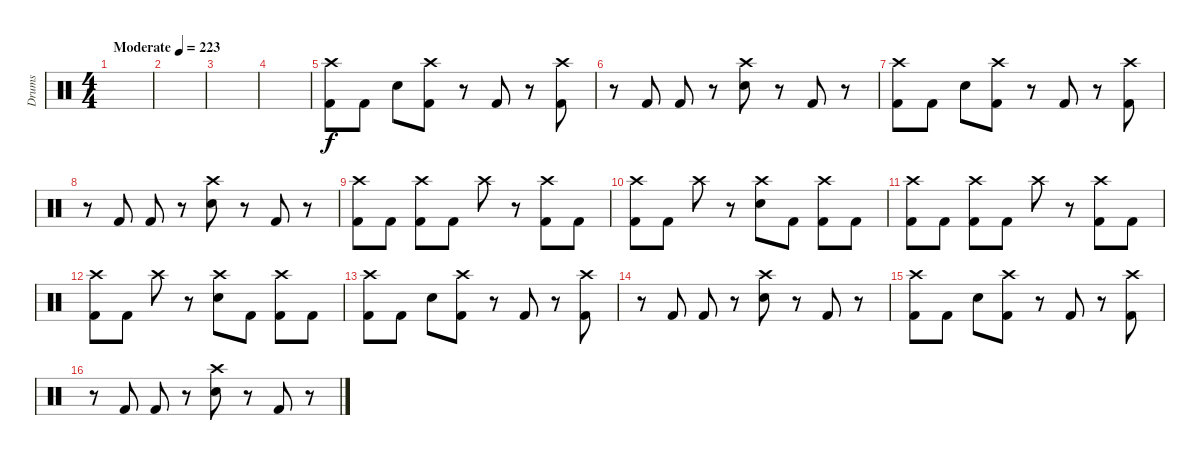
\track ("Drums" "Drums") {instrument percussion bank 177}
\staff {score}
\articulation defaults
\ts (4 4)
\tempo (223 "Moderate")
\clef neutral
\ks c
|
|
|
|
("Crash high (hit)" "Kick (hit) 2").8 "Kick (hit) 2".8 "Electric Snare (hit)".8 ("Crash high (hit)" "Kick (hit) 2").8 r.8 "Kick (hit) 2".8 r.8 ("Crash high (hit)" "Kick (hit) 2").8 |
r.8 "Kick (hit) 2".8 "Kick (hit) 2".8 r.8 ("Crash high (hit)" "Electric Snare (hit)").8 r.8 "Kick (hit) 2".8 r.8 |
("Crash high (hit)" "Kick (hit) 2").8 "Kick (hit) 2".8 "Electric Snare (hit)".8 ("Crash high (hit)" "Kick (hit) 2").8 r.8 "Kick (hit) 2".8 r.8 ("Crash high (hit)" "Kick (hit) 2").8 |
r.8 "Kick (hit) 2".8 "Kick (hit) 2".8 r.8 ("Crash high (hit)" "Electric Snare (hit)").8 r.8 "Kick (hit) 2".8 r.8 |
("Crash high (hit)" "Kick (hit) 2").8 "Kick (hit) 2".8 ("Crash high (hit)" "Kick (hit) 2").8 "Kick (hit) 2".8 "Crash high (hit)".8 r.8 ("Crash high (hit)" "Kick (hit) 2").8 "Kick (hit) 2".8 |
("Crash high (hit)" "Kick (hit) 2").8 "Kick (hit) 2".8 "Crash high (hit)".8 r.8 ("Crash high (hit)" "Electric Snare (hit)").8 "Kick (hit) 2".8 ("Crash high (hit)" "Kick (hit) 2").8 "Kick (hit) 2".8 |
("Crash high (hit)" "Kick (hit) 2").8 "Kick (hit) 2".8 ("Crash high (hit)" "Kick (hit) 2").8 "Kick (hit) 2".8 "Crash high (hit)".8 r.8 ("Crash high (hit)" "Kick (hit) 2").8 "Kick (hit) 2".8 |
("Crash high (hit)" "Kick (hit) 2").8 "Kick (hit) 2".8 "Crash high (hit)".8 r.8 ("Crash high (hit)" "Electric Snare (hit)").8 "Kick (hit) 2".8 ("Crash high (hit)" "Kick (hit) 2").8 "Kick (hit) 2".8 |
("Crash high (hit)" "Kick (hit) 2").8 "Kick (hit) 2".8 "Electric Snare (hit)".8 ("Crash high (hit)" "Kick (hit) 2").8 r.8 "Kick (hit) 2".8 r.8 ("Crash high (hit)" "Kick (hit) 2").8 |
r.8 "Kick (hit) 2".8 "Kick (hit) 2".8 r.8 ("Crash high (hit)" "Electric Snare (hit)").8 r.8 "Kick (hit) 2".8 r.8 |
("Crash high (hit)" "Kick (hit) 2").8 "Kick (hit) 2".8 "Electric Snare (hit)".8 ("Crash high (hit)" "Kick (hit) 2").8 r.8 "Kick (hit) 2".8 r.8 ("Crash high (hit)" "Kick (hit) 2").8 |
r.8 "Kick (hit) 2".8 "Kick (hit) 2".8 r.8 ("Crash high (hit)" "Electric Snare (hit)").8 r.8 "Kick (hit) 2".8 r.8
